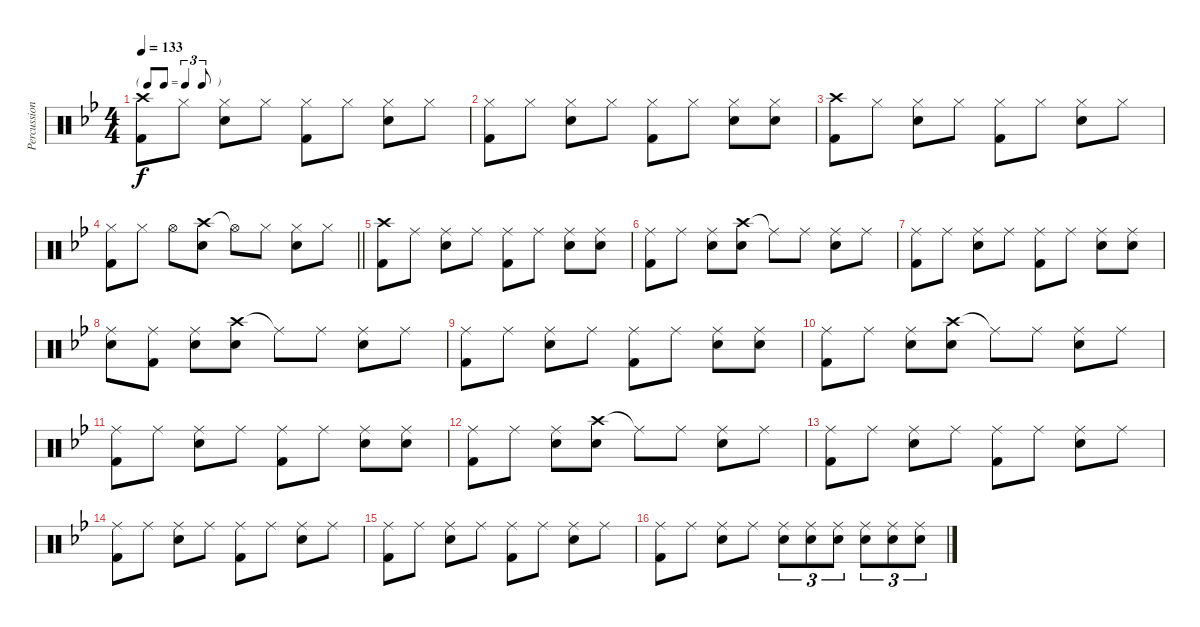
\track ("Percussion" "Percussion") {instrument percussion}
\staff {score}
\articulation defaults
\ts (4 4)
\tf triplet8th
\tempo 133
\clef neutral
\ks bb
("Crash high (hit)" "Kick (hit) 2").8{dy f} "Hi-Hat (closed)".8 ("Hi-Hat (closed)" "Snare (hit) 2").8 "Hi-Hat (closed)".8 ("Hi-Hat (closed)" "Kick (hit) 2").8 "Hi-Hat (closed)".8 ("Hi-Hat (closed)" "Snare (hit) 2").8 "Hi-Hat (closed)".8 |
("Hi-Hat (closed)" "Kick (hit) 2").8 "Hi-Hat (closed)".8 ("Hi-Hat (closed)" "Snare (hit) 2").8 "Hi-Hat (closed)".8 ("Hi-Hat (closed)" "Kick (hit) 2").8 "Hi-Hat (closed)".8 ("Hi-Hat (closed)" "Snare (hit) 2").8 ("Hi-Hat (closed)" "Snare (hit) 2").8 |
("Crash high (hit)" "Kick (hit) 2").8 "Hi-Hat (closed)".8 ("Hi-Hat (closed)" "Snare (hit) 2").8 "Hi-Hat (closed)".8 ("Hi-Hat (closed)" "Kick (hit) 2").8 "Hi-Hat (closed)".8 ("Hi-Hat (closed)" "Snare (hit) 2").8 "Hi-Hat (closed)".8 |
\barLineRight lightlight
("Hi-Hat (closed)" "Kick (hit) 2").8 "Hi-Hat (closed)".8 "Hi-Hat (open)".8 ("Crash high (hit)" "Snare (hit) 2").8 "Hi-Hat (open)"{t}.8 "Hi-Hat (closed)".8 ("Hi-Hat (closed)" "Snare (hit) 2").8 "Hi-Hat (closed)".8 |
("Crash high (hit)" "Kick (hit) 2").8 "Ride (middle)".8 ("Ride (middle)" "Snare (hit) 2").8 "Ride (middle)".8 ("Ride (middle)" "Kick (hit) 2").8 "Ride (middle)".8 ("Ride (middle)" "Snare (hit) 2").8 ("Ride (middle)" "Snare (hit) 2").8 |
("Ride (middle)" "Kick (hit) 2").8 "Ride (middle)".8 ("Ride (middle)" "Snare (hit) 2").8 ("Crash high (hit)" "Snare (hit) 2").8 "Ride (middle)"{t}.8 "Ride (middle)".8 ("Ride (middle)" "Snare (hit) 2").8 "Ride (middle)".8 |
("Ride (middle)" "Kick (hit) 2").8 "Ride (middle)".8 ("Ride (middle)" "Snare (hit) 2").8 "Ride (middle)".8 ("Ride (middle)" "Kick (hit) 2").8 "Ride (middle)".8 ("Ride (middle)" "Snare (hit) 2").8 ("Ride (middle)" "Snare (hit) 2").8 |
("Ride (middle)" "Snare (hit) 2").8 ("Ride (middle)" "Kick (hit) 2").8 ("Ride (middle)" "Snare (hit) 2").8 ("Crash high (hit)" "Snare (hit) 2").8 "Ride (middle)"{t}.8 "Ride (middle)".8 ("Ride (middle)" "Snare (hit) 2").8 "Ride (middle)".8 |
("Ride (middle)" "Kick (hit) 2").8 "Ride (middle)".8 ("Ride (middle)" "Snare (hit) 2").8 "Ride (middle)".8 ("Ride (middle)" "Kick (hit) 2").8 "Ride (middle)".8 ("Ride (middle)" "Snare (hit) 2").8 ("Ride (middle)" "Snare (hit) 2").8 |
("Ride (middle)" "Kick (hit) 2").8 "Ride (middle)".8 ("Ride (middle)" "Snare (hit) 2").8 ("Crash high (hit)" "Snare (hit) 2").8 "Ride (middle)"{t}.8 "Ride (middle)".8 ("Ride (middle)" "Snare (hit) 2").8 "Ride (middle)".8 |
("Ride (middle)" "Kick (hit) 2").8 "Ride (middle)".8 ("Ride (middle)" "Snare (hit) 2").8 "Ride (middle)".8 ("Ride (middle)" "Kick (hit) 2").8 "Ride (middle)".8 ("Ride (middle)" "Snare (hit) 2").8 ("Ride (middle)" "Snare (hit) 2").8 |
("Ride (middle)" "Kick (hit) 2").8 "Ride (middle)".8 ("Ride (middle)" "Snare (hit) 2").8 ("Crash high (hit)" "Snare (hit) 2").8 "Ride (middle)"{t}.8 "Ride (middle)".8 ("Ride (middle)" "Snare (hit) 2").8 "Ride (middle)".8 |
("Ride (middle)" "Kick (hit) 2").8 "Ride (middle)".8 ("Ride (middle)" "Snare (hit) 2").8 "Ride (middle)".8 ("Ride (middle)" "Kick (hit) 2").8 "Ride (middle)".8 ("Ride (middle)" "Snare (hit) 2").8 "Ride (middle)".8 |
("Ride (middle)" "Kick (hit) 2").8 "Ride (middle)".8 ("Ride (middle)" "Snare (hit) 2").8 "Ride (middle)".8 ("Ride (middle)" "Kick (hit) 2").8 "Ride (middle)".8 ("Ride (middle)" "Snare (hit) 2").8 "Ride (middle)".8 |
("Ride (middle)" "Kick (hit) 2").8 "Ride (middle)".8 ("Ride (middle)" "Snare (hit) 2").8 "Ride (middle)".8 ("Ride (middle)" "Kick (hit) 2").8 "Ride (middle)".8 ("Ride (middle)" "Snare (hit) 2").8 "Ride (middle)".8 |
("Ride (middle)" "Kick (hit) 2").8 "Ride (middle)".8 ("Ride (middle)" "Snare (hit) 2").8 "Ride (middle)".8 ("Ride (middle)" "Snare (hit) 2").8{tu (3 2)} ("Ride (middle)" "Snare (hit) 2").8{tu (3 2)} ("Ride (middle)" "Snare (hit) 2").8{tu (3 2)} ("Ride (middle)" "Snare (hit) 2").8{tu (3 2)} ("Ride (middle)" "Snare (hit) 2").8{tu (3 2)} ("Ride (middle)" "Snare (hit) 2").8{tu (3 2)}
